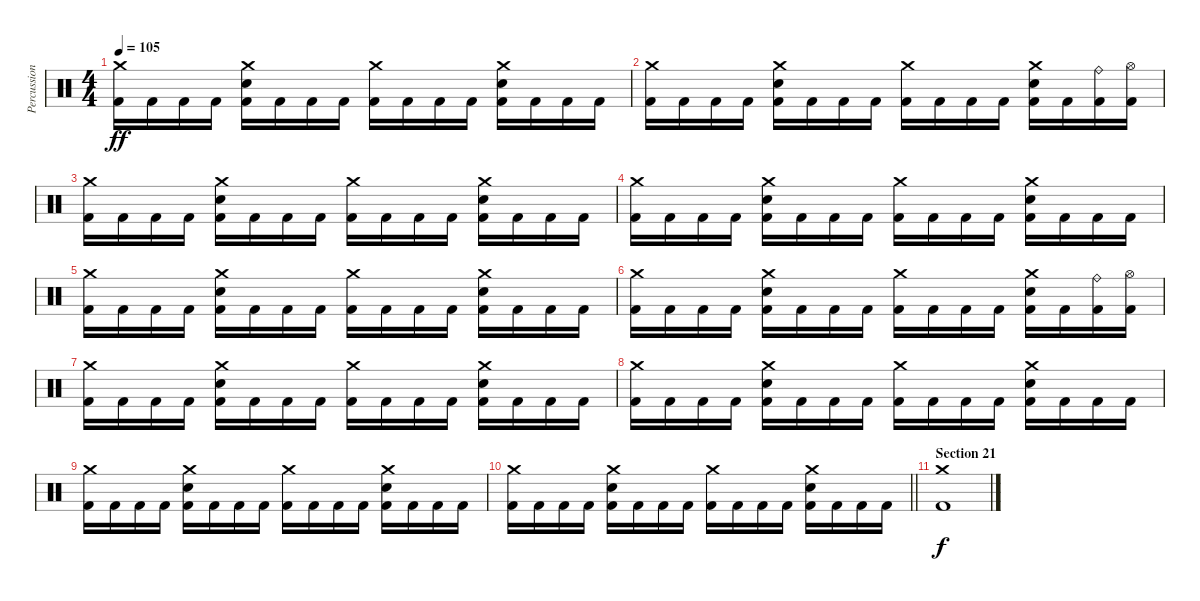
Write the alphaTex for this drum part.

\track ("Percussion" "Percussion") {instrument percussion}
\staff {score}
\articulation defaults
\ts (4 4)
\tempo 105
\clef neutral
\ks c
("Crash medium (hit)" "Kick (hit) 2").16{dy ff} "Kick (hit) 2".16 "Kick (hit) 2".16 "Kick (hit) 2".16 ("Crash medium (hit)" "Electric Snare (hit)" "Kick (hit) 2").16 "Kick (hit) 2".16 "Kick (hit) 2".16 "Kick (hit) 2".16 ("Crash medium (hit)" "Kick (hit) 2").16 "Kick (hit) 2".16 "Kick (hit) 2".16 "Kick (hit) 2".16 ("Crash medium (hit)" "Electric Snare (hit)" "Kick (hit) 2").16 "Kick (hit) 2".16 "Kick (hit) 2".16 "Kick (hit) 2".16 |
("Crash medium (hit)" "Kick (hit) 2").16 "Kick (hit) 2".16 "Kick (hit) 2".16 "Kick (hit) 2".16 ("Crash medium (hit)" "Electric Snare (hit)" "Kick (hit) 2").16 "Kick (hit) 2".16 "Kick (hit) 2".16 "Kick (hit) 2".16 ("Crash medium (hit)" "Kick (hit) 2").16 "Kick (hit) 2".16 "Kick (hit) 2".16 "Kick (hit) 2".16 ("Crash medium (hit)" "Electric Snare (hit)" "Kick (hit) 2").16 "Kick (hit) 2".16 ("Ride (bell)" "Kick (hit) 2").16 ("Hi-Hat (open)" "Kick (hit) 2").16 |
("Crash medium (hit)" "Kick (hit) 2").16 "Kick (hit) 2".16 "Kick (hit) 2".16 "Kick (hit) 2".16 ("Crash medium (hit)" "Electric Snare (hit)" "Kick (hit) 2").16 "Kick (hit) 2".16 "Kick (hit) 2".16 "Kick (hit) 2".16 ("Crash medium (hit)" "Kick (hit) 2").16 "Kick (hit) 2".16 "Kick (hit) 2".16 "Kick (hit) 2".16 ("Crash medium (hit)" "Electric Snare (hit)" "Kick (hit) 2").16 "Kick (hit) 2".16 "Kick (hit) 2".16 "Kick (hit) 2".16 |
("Crash medium (hit)" "Kick (hit) 2").16 "Kick (hit) 2".16 "Kick (hit) 2".16 "Kick (hit) 2".16 ("Crash medium (hit)" "Electric Snare (hit)" "Kick (hit) 2").16 "Kick (hit) 2".16 "Kick (hit) 2".16 "Kick (hit) 2".16 ("Crash medium (hit)" "Kick (hit) 2").16 "Kick (hit) 2".16 "Kick (hit) 2".16 "Kick (hit) 2".16 ("Crash medium (hit)" "Electric Snare (hit)" "Kick (hit) 2").16 "Kick (hit) 2".16 "Kick (hit) 2".16 "Kick (hit) 2".16 |
("Crash medium (hit)" "Kick (hit) 2").16 "Kick (hit) 2".16 "Kick (hit) 2".16 "Kick (hit) 2".16 ("Crash medium (hit)" "Electric Snare (hit)" "Kick (hit) 2").16 "Kick (hit) 2".16 "Kick (hit) 2".16 "Kick (hit) 2".16 ("Crash medium (hit)" "Kick (hit) 2").16 "Kick (hit) 2".16 "Kick (hit) 2".16 "Kick (hit) 2".16 ("Crash medium (hit)" "Electric Snare (hit)" "Kick (hit) 2").16 "Kick (hit) 2".16 "Kick (hit) 2".16 "Kick (hit) 2".16 |
("Crash medium (hit)" "Kick (hit) 2").16 "Kick (hit) 2".16 "Kick (hit) 2".16 "Kick (hit) 2".16 ("Crash medium (hit)" "Electric Snare (hit)" "Kick (hit) 2").16 "Kick (hit) 2".16 "Kick (hit) 2".16 "Kick (hit) 2".16 ("Crash medium (hit)" "Kick (hit) 2").16 "Kick (hit) 2".16 "Kick (hit) 2".16 "Kick (hit) 2".16 ("Crash medium (hit)" "Electric Snare (hit)" "Kick (hit) 2").16 "Kick (hit) 2".16 ("Ride (bell)" "Kick (hit) 2").16 ("Hi-Hat (open)" "Kick (hit) 2").16 |
("Crash medium (hit)" "Kick (hit) 2").16 "Kick (hit) 2".16 "Kick (hit) 2".16 "Kick (hit) 2".16 ("Crash medium (hit)" "Electric Snare (hit)" "Kick (hit) 2").16 "Kick (hit) 2".16 "Kick (hit) 2".16 "Kick (hit) 2".16 ("Crash medium (hit)" "Kick (hit) 2").16 "Kick (hit) 2".16 "Kick (hit) 2".16 "Kick (hit) 2".16 ("Crash medium (hit)" "Electric Snare (hit)" "Kick (hit) 2").16 "Kick (hit) 2".16 "Kick (hit) 2".16 "Kick (hit) 2".16 |
("Crash medium (hit)" "Kick (hit) 2").16 "Kick (hit) 2".16 "Kick (hit) 2".16 "Kick (hit) 2".16 ("Crash medium (hit)" "Electric Snare (hit)" "Kick (hit) 2").16 "Kick (hit) 2".16 "Kick (hit) 2".16 "Kick (hit) 2".16 ("Crash medium (hit)" "Kick (hit) 2").16 "Kick (hit) 2".16 "Kick (hit) 2".16 "Kick (hit) 2".16 ("Crash medium (hit)" "Electric Snare (hit)" "Kick (hit) 2").16 "Kick (hit) 2".16 "Kick (hit) 2".16 "Kick (hit) 2".16 |
("Crash medium (hit)" "Kick (hit) 2").16 "Kick (hit) 2".16 "Kick (hit) 2".16 "Kick (hit) 2".16 ("Crash medium (hit)" "Electric Snare (hit)" "Kick (hit) 2").16 "Kick (hit) 2".16 "Kick (hit) 2".16 "Kick (hit) 2".16 ("Crash medium (hit)" "Kick (hit) 2").16 "Kick (hit) 2".16 "Kick (hit) 2".16 "Kick (hit) 2".16 ("Crash medium (hit)" "Electric Snare (hit)" "Kick (hit) 2").16 "Kick (hit) 2".16 "Kick (hit) 2".16 "Kick (hit) 2".16 |
\barLineRight lightlight
("Crash medium (hit)" "Kick (hit) 2").16 "Kick (hit) 2".16 "Kick (hit) 2".16 "Kick (hit) 2".16 ("Crash medium (hit)" "Electric Snare (hit)" "Kick (hit) 2").16 "Kick (hit) 2".16 "Kick (hit) 2".16 "Kick (hit) 2".16 ("Crash medium (hit)" "Kick (hit) 2").16 "Kick (hit) 2".16 "Kick (hit) 2".16 "Kick (hit) 2".16 ("Crash medium (hit)" "Electric Snare (hit)" "Kick (hit) 2").16 "Kick (hit) 2".16 "Kick (hit) 2".16 "Kick (hit) 2".16 |
\section ("" "Section 21")
("Crash medium (hit)" "Kick (hit) 2").1{dy f}
